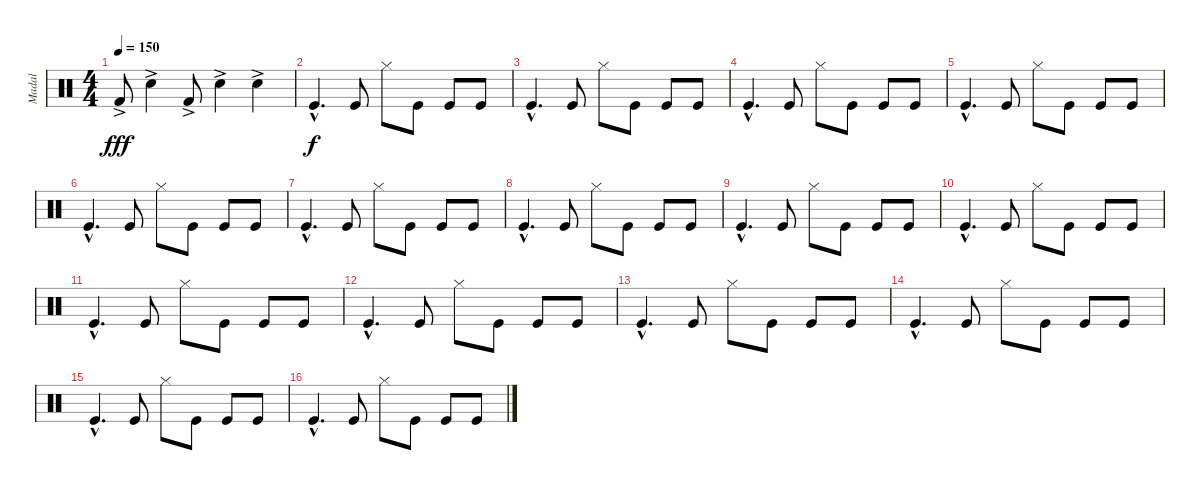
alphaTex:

\track ("Madal" "Madal") {instrument percussion}
\staff {score}
\articulation defaults
\ts (4 4)
\tempo 150
\clef neutral
\ks c "Kick (hit) 2"{ac}.8{dy fff volume 6} "Electric Snare (hit)"{ac}.4 "Kick (hit) 2"{ac}.8 "Electric Snare (hit)"{ac}.4 "Electric Snare (hit)"{ac}.4
|
"Kick (hit)"{hac}.4{d dy f} "Kick (hit)".8 "Hi-Hat (closed)".8 "Kick (hit)".8 "Kick (hit)".8 "Kick (hit)".8 |
"Kick (hit)"{hac}.4{d} "Kick (hit)".8 "Hi-Hat (closed)".8 "Kick (hit)".8 "Kick (hit)".8 "Kick (hit)".8 |
"Kick (hit)"{hac}.4{d} "Kick (hit)".8 "Hi-Hat (closed)".8 "Kick (hit)".8 "Kick (hit)".8 "Kick (hit)".8 |
"Kick (hit)"{hac}.4{d} "Kick (hit)".8 "Hi-Hat (closed)".8 "Kick (hit)".8 "Kick (hit)".8 "Kick (hit)".8 |
"Kick (hit)"{hac}.4{d} "Kick (hit)".8 "Hi-Hat (closed)".8 "Kick (hit)".8 "Kick (hit)".8 "Kick (hit)".8 |
"Kick (hit)"{hac}.4{d} "Kick (hit)".8 "Hi-Hat (closed)".8 "Kick (hit)".8 "Kick (hit)".8 "Kick (hit)".8 |
"Kick (hit)"{hac}.4{d} "Kick (hit)".8 "Hi-Hat (closed)".8 "Kick (hit)".8 "Kick (hit)".8 "Kick (hit)".8 |
"Kick (hit)"{hac}.4{d} "Kick (hit)".8 "Hi-Hat (closed)".8 "Kick (hit)".8 "Kick (hit)".8 "Kick (hit)".8 |
"Kick (hit)"{hac}.4{d} "Kick (hit)".8 "Hi-Hat (closed)".8 "Kick (hit)".8 "Kick (hit)".8 "Kick (hit)".8 |
"Kick (hit)"{hac}.4{d} "Kick (hit)".8 "Hi-Hat (closed)".8 "Kick (hit)".8 "Kick (hit)".8 "Kick (hit)".8 |
"Kick (hit)"{hac}.4{d} "Kick (hit)".8 "Hi-Hat (closed)".8 "Kick (hit)".8 "Kick (hit)".8 "Kick (hit)".8 |
"Kick (hit)"{hac}.4{d} "Kick (hit)".8 "Hi-Hat (closed)".8 "Kick (hit)".8 "Kick (hit)".8 "Kick (hit)".8 |
"Kick (hit)"{hac}.4{d} "Kick (hit)".8 "Hi-Hat (closed)".8 "Kick (hit)".8 "Kick (hit)".8 "Kick (hit)".8 |
"Kick (hit)"{hac}.4{d} "Kick (hit)".8 "Hi-Hat (closed)".8 "Kick (hit)".8 "Kick (hit)".8 "Kick (hit)".8 |
"Kick (hit)"{hac}.4{d} "Kick (hit)".8 "Hi-Hat (closed)".8 "Kick (hit)".8 "Kick (hit)".8 "Kick (hit)".8
